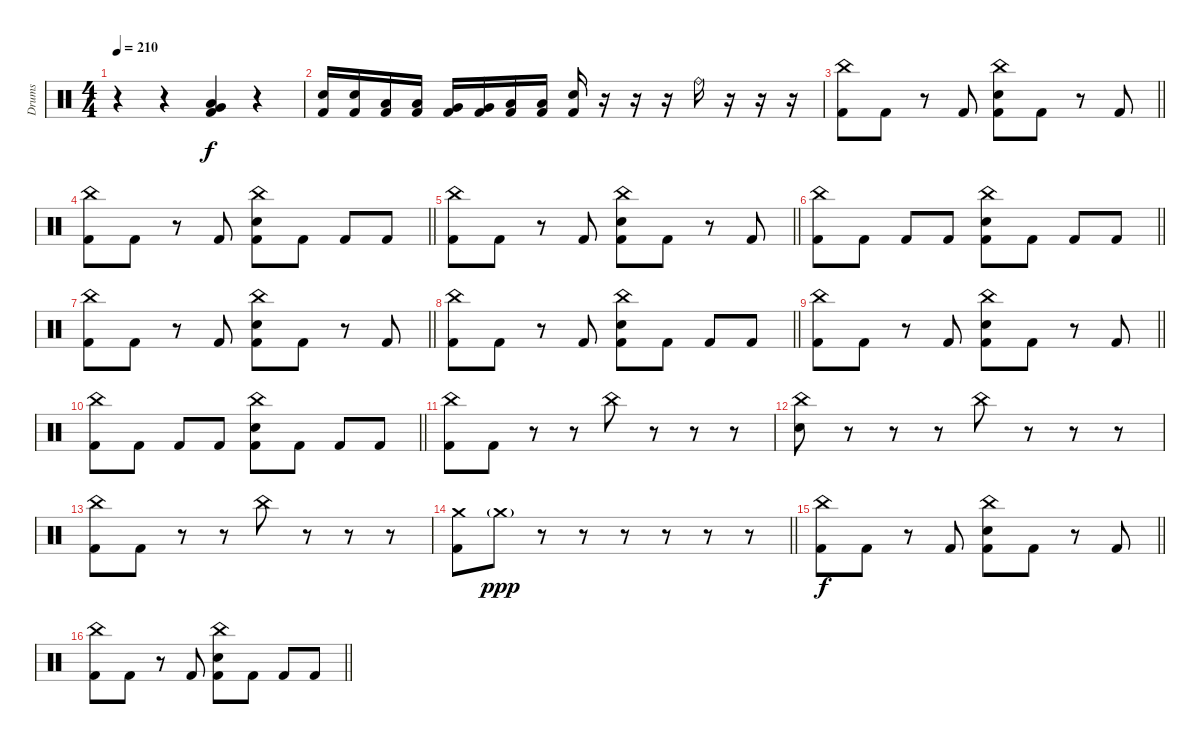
\track ("Drums" "Drums") {instrument percussion}
\staff {score}
\articulation defaults
\ts (4 4)
\tempo 210
\clef neutral
\ks c
r.4{dy f} r.4 ("Low Tom (hit)" "Very Low Tom (hit)" "Kick (hit) 2").4 r.4 |
("Electric Snare (hit)" "Kick (hit) 2").16 ("Electric Snare (hit)" "Kick (hit) 2").16 ("Low Tom (hit)" "Kick (hit) 2").16 ("Low Tom (hit)" "Kick (hit) 2").16 ("Very Low Tom (hit)" "Kick (hit) 2").16 ("Very Low Tom (hit)" "Kick (hit) 2").16 ("Low Floor Tom (hit)" "Kick (hit) 2").16 ("Low Floor Tom (hit)" "Kick (hit) 2").16 ("Electric Snare (hit)" "Kick (hit) 2").16 r.16 r.16 r.16 "Ride (bell)".16 r.16 r.16 r.16 |
\barLineRight lightlight
("China (hit)" "Kick (hit) 2").8 "Kick (hit) 2".8 r.8 "Kick (hit) 2".8 ("China (hit)" "Electric Snare (hit)" "Kick (hit) 2").8 "Kick (hit) 2".8 r.8 "Kick (hit) 2".8 |
\barLineRight lightlight
("China (hit)" "Kick (hit) 2").8 "Kick (hit) 2".8 r.8 "Kick (hit) 2".8 ("China (hit)" "Electric Snare (hit)" "Kick (hit) 2").8 "Kick (hit) 2".8 "Kick (hit) 2".8 "Kick (hit) 2".8 |
\barLineRight lightlight
("China (hit)" "Kick (hit) 2").8 "Kick (hit) 2".8 r.8 "Kick (hit) 2".8 ("China (hit)" "Electric Snare (hit)" "Kick (hit) 2").8 "Kick (hit) 2".8 r.8 "Kick (hit) 2".8 |
\barLineRight lightlight
("China (hit)" "Kick (hit) 2").8 "Kick (hit) 2".8 "Kick (hit) 2".8 "Kick (hit) 2".8 ("China (hit)" "Electric Snare (hit)" "Kick (hit) 2").8 "Kick (hit) 2".8 "Kick (hit) 2".8 "Kick (hit) 2".8 |
\barLineRight lightlight
("China (hit)" "Kick (hit) 2").8 "Kick (hit) 2".8 r.8 "Kick (hit) 2".8 ("China (hit)" "Electric Snare (hit)" "Kick (hit) 2").8 "Kick (hit) 2".8 r.8 "Kick (hit) 2".8 |
\barLineRight lightlight
("China (hit)" "Kick (hit) 2").8 "Kick (hit) 2".8 r.8 "Kick (hit) 2".8 ("China (hit)" "Electric Snare (hit)" "Kick (hit) 2").8 "Kick (hit) 2".8 "Kick (hit) 2".8 "Kick (hit) 2".8 |
\barLineRight lightlight
("China (hit)" "Kick (hit) 2").8 "Kick (hit) 2".8 r.8 "Kick (hit) 2".8 ("China (hit)" "Electric Snare (hit)" "Kick (hit) 2").8 "Kick (hit) 2".8 r.8 "Kick (hit) 2".8 |
\barLineRight lightlight
("China (hit)" "Kick (hit) 2").8 "Kick (hit) 2".8 "Kick (hit) 2".8 "Kick (hit) 2".8 ("China (hit)" "Electric Snare (hit)" "Kick (hit) 2").8 "Kick (hit) 2".8 "Kick (hit) 2".8 "Kick (hit) 2".8 |
("China (hit)" "Kick (hit) 2").8 "Kick (hit) 2".8 r.8 r.8 "China (hit)".8 r.8 r.8 r.8 |
("China (hit)" "Electric Snare (hit)").8 r.8 r.8 r.8 "China (hit)".8 r.8 r.8 r.8 |
("China (hit)" "Kick (hit) 2").8 "Kick (hit) 2".8 r.8 r.8 "China (hit)".8 r.8 r.8 r.8 |
\barLineRight lightlight
("Crash medium (hit)" "Kick (hit) 2").8 "Crash medium (hit)"{g}.8{dy ppp volume 0} r.8 r.8 r.8 r.8 r.8 r.8 |
\barLineRight lightlight
("China (hit)" "Kick (hit) 2").8{dy f volume 16} "Kick (hit) 2".8 r.8 "Kick (hit) 2".8 ("China (hit)" "Electric Snare (hit)" "Kick (hit) 2").8 "Kick (hit) 2".8 r.8 "Kick (hit) 2".8 |
\barLineRight lightlight
("China (hit)" "Kick (hit) 2").8 "Kick (hit) 2".8 r.8 "Kick (hit) 2".8 ("China (hit)" "Electric Snare (hit)" "Kick (hit) 2").8 "Kick (hit) 2".8 "Kick (hit) 2".8 "Kick (hit) 2".8
